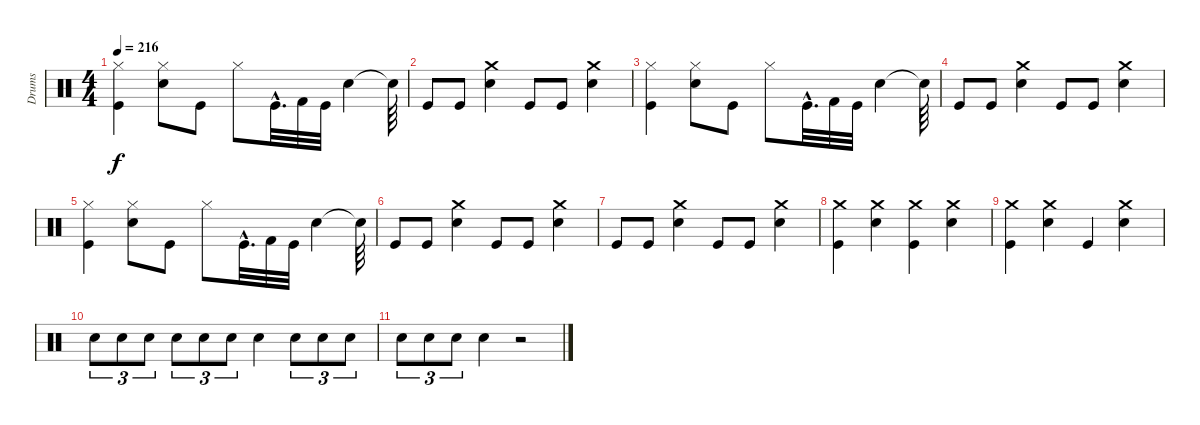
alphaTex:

\track ("Drums" "Drums") {instrument percussion}
\staff {score}
\articulation defaults
\ts (4 4)
\tempo 216
\clef neutral
\ks c
("Kick (hit)" "Hi-Hat (closed)").4{dy f} ("Snare (hit) 2" "Hi-Hat (closed)").8 "Kick (hit)".8 "Hi-Hat (closed)".8 "Kick (hit)"{hac}.32{d} "Kick (hit) 2".32 "Kick (hit)".32 "Snare (hit) 2".4 "Snare (hit)"{t}.64 |
"Kick (hit)".8 "Kick (hit)".8 ("Snare (hit) 2" "Crash medium (hit)").4 "Kick (hit)".8 "Kick (hit)".8 ("Snare (hit) 2" "Crash medium (hit)").4 |
("Kick (hit)" "Hi-Hat (closed)").4 ("Snare (hit) 2" "Hi-Hat (closed)").8 "Kick (hit)".8 "Hi-Hat (closed)".8 "Kick (hit)"{hac}.32{d} "Kick (hit) 2".32 "Kick (hit)".32 "Snare (hit) 2".4 "Snare (hit)"{t}.64 |
"Kick (hit)".8 "Kick (hit)".8 ("Snare (hit) 2" "Crash medium (hit)").4 "Kick (hit)".8 "Kick (hit)".8 ("Snare (hit) 2" "Crash medium (hit)").4 |
("Kick (hit)" "Hi-Hat (closed)").4 ("Snare (hit) 2" "Hi-Hat (closed)").8 "Kick (hit)".8 "Hi-Hat (closed)".8 "Kick (hit)"{hac}.32{d} "Kick (hit) 2".32 "Kick (hit)".32 "Snare (hit) 2".4 "Snare (hit)"{t}.64 |
"Kick (hit)".8 "Kick (hit)".8 ("Snare (hit) 2" "Crash medium (hit)").4 "Kick (hit)".8 "Kick (hit)".8 ("Snare (hit) 2" "Crash medium (hit)").4 |
"Kick (hit)".8 "Kick (hit)".8 ("Snare (hit) 2" "Crash medium (hit)").4 "Kick (hit)".8 "Kick (hit)".8 ("Snare (hit) 2" "Crash medium (hit)").4 |
("Crash medium (hit)" "Kick (hit)").4 ("Crash medium (hit)" "Snare (hit) 2").4 ("Crash medium (hit)" "Kick (hit)").4 ("Crash medium (hit)" "Snare (hit) 2").4 |
("Kick (hit)" "Crash medium (hit)").4 ("Snare (hit) 2" "Crash medium (hit)").4 "Kick (hit)".4 ("Snare (hit) 2" "Crash medium (hit)").4 |
"Snare (hit) 2".8{tu (3 2)} "Snare (hit) 2".8{tu (3 2)} "Snare (hit) 2".8{tu (3 2)} "Snare (hit) 2".8{tu (3 2)} "Snare (hit) 2".8{tu (3 2)} "Snare (hit) 2".8{tu (3 2)} "Snare (hit) 2".4 "Snare (hit) 2".8{tu (3 2)} "Snare (hit) 2".8{tu (3 2)} "Snare (hit) 2".8{tu (3 2)} |
"Snare (hit) 2".8{tu (3 2)} "Snare (hit) 2".8{tu (3 2)} "Snare (hit) 2".8{tu (3 2)} "Snare (hit) 2".4 r.2
